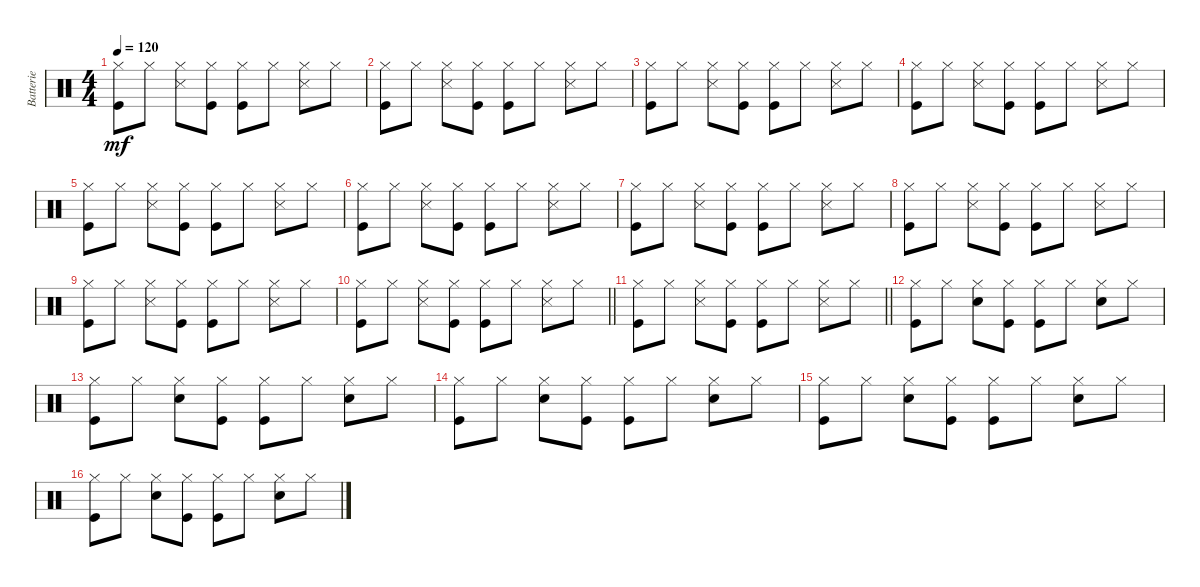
\track ("Batterie" "Batterie") {instrument percussion}
\staff {score}
\articulation defaults
\ts (4 4)
\tempo 120
\clef neutral
\ks c
("Hi-Hat (closed)" "Kick (hit)").8{dy mf} "Hi-Hat (closed)".8 ("Hi-Hat (closed)" "Snare (side stick) 3").8 ("Hi-Hat (closed)" "Kick (hit)").8 ("Hi-Hat (closed)" "Kick (hit)").8 "Hi-Hat (closed)".8 ("Hi-Hat (closed)" "Snare (side stick) 3").8 "Hi-Hat (closed)".8 |
("Hi-Hat (closed)" "Kick (hit)").8 "Hi-Hat (closed)".8 ("Hi-Hat (closed)" "Snare (side stick) 3").8 ("Hi-Hat (closed)" "Kick (hit)").8 ("Hi-Hat (closed)" "Kick (hit)").8 "Hi-Hat (closed)".8 ("Hi-Hat (closed)" "Snare (side stick) 3").8 "Hi-Hat (closed)".8 |
("Hi-Hat (closed)" "Kick (hit)").8 "Hi-Hat (closed)".8 ("Hi-Hat (closed)" "Snare (side stick) 3").8 ("Hi-Hat (closed)" "Kick (hit)").8 ("Hi-Hat (closed)" "Kick (hit)").8 "Hi-Hat (closed)".8 ("Hi-Hat (closed)" "Snare (side stick) 3").8 "Hi-Hat (closed)".8 |
("Hi-Hat (closed)" "Kick (hit)").8 "Hi-Hat (closed)".8 ("Hi-Hat (closed)" "Snare (side stick) 3").8 ("Hi-Hat (closed)" "Kick (hit)").8 ("Hi-Hat (closed)" "Kick (hit)").8 "Hi-Hat (closed)".8 ("Hi-Hat (closed)" "Snare (side stick) 3").8 "Hi-Hat (closed)".8 |
("Hi-Hat (closed)" "Kick (hit)").8 "Hi-Hat (closed)".8 ("Hi-Hat (closed)" "Snare (side stick) 3").8 ("Hi-Hat (closed)" "Kick (hit)").8 ("Hi-Hat (closed)" "Kick (hit)").8 "Hi-Hat (closed)".8 ("Hi-Hat (closed)" "Snare (side stick) 3").8 "Hi-Hat (closed)".8 |
("Hi-Hat (closed)" "Kick (hit)").8 "Hi-Hat (closed)".8 ("Hi-Hat (closed)" "Snare (side stick) 3").8 ("Hi-Hat (closed)" "Kick (hit)").8 ("Hi-Hat (closed)" "Kick (hit)").8 "Hi-Hat (closed)".8 ("Hi-Hat (closed)" "Snare (side stick) 3").8 "Hi-Hat (closed)".8 |
("Hi-Hat (closed)" "Kick (hit)").8 "Hi-Hat (closed)".8 ("Hi-Hat (closed)" "Snare (side stick) 3").8 ("Hi-Hat (closed)" "Kick (hit)").8 ("Hi-Hat (closed)" "Kick (hit)").8 "Hi-Hat (closed)".8 ("Hi-Hat (closed)" "Snare (side stick) 3").8 "Hi-Hat (closed)".8 |
("Hi-Hat (closed)" "Kick (hit)").8 "Hi-Hat (closed)".8 ("Hi-Hat (closed)" "Snare (side stick) 3").8 ("Hi-Hat (closed)" "Kick (hit)").8 ("Hi-Hat (closed)" "Kick (hit)").8 "Hi-Hat (closed)".8 ("Hi-Hat (closed)" "Snare (side stick) 3").8 "Hi-Hat (closed)".8 |
("Hi-Hat (closed)" "Kick (hit)").8 "Hi-Hat (closed)".8 ("Hi-Hat (closed)" "Snare (side stick) 3").8 ("Hi-Hat (closed)" "Kick (hit)").8 ("Hi-Hat (closed)" "Kick (hit)").8 "Hi-Hat (closed)".8 ("Hi-Hat (closed)" "Snare (side stick) 3").8 "Hi-Hat (closed)".8 |
\barLineRight lightlight
("Hi-Hat (closed)" "Kick (hit)").8 "Hi-Hat (closed)".8 ("Hi-Hat (closed)" "Snare (side stick) 3").8 ("Hi-Hat (closed)" "Kick (hit)").8 ("Hi-Hat (closed)" "Kick (hit)").8 "Hi-Hat (closed)".8 ("Hi-Hat (closed)" "Snare (side stick) 3").8 "Hi-Hat (closed)".8 |
\barLineRight lightlight
("Hi-Hat (closed)" "Kick (hit)").8 "Hi-Hat (closed)".8 ("Hi-Hat (closed)" "Snare (side stick) 3").8 ("Hi-Hat (closed)" "Kick (hit)").8 ("Hi-Hat (closed)" "Kick (hit)").8 "Hi-Hat (closed)".8 ("Hi-Hat (closed)" "Snare (side stick) 3").8 "Hi-Hat (closed)".8 |
("Hi-Hat (closed)" "Kick (hit)").8 "Hi-Hat (closed)".8 ("Hi-Hat (closed)" "Snare (hit) 2").8 ("Hi-Hat (closed)" "Kick (hit)").8 ("Hi-Hat (closed)" "Kick (hit)").8 "Hi-Hat (closed)".8 ("Hi-Hat (closed)" "Snare (hit) 2").8 "Hi-Hat (closed)".8 |
("Hi-Hat (closed)" "Kick (hit)").8 "Hi-Hat (closed)".8 ("Hi-Hat (closed)" "Snare (hit) 2").8 ("Hi-Hat (closed)" "Kick (hit)").8 ("Hi-Hat (closed)" "Kick (hit)").8 "Hi-Hat (closed)".8 ("Hi-Hat (closed)" "Snare (hit) 2").8 "Hi-Hat (closed)".8 |
("Hi-Hat (closed)" "Kick (hit)").8 "Hi-Hat (closed)".8 ("Hi-Hat (closed)" "Snare (hit) 2").8 ("Hi-Hat (closed)" "Kick (hit)").8 ("Hi-Hat (closed)" "Kick (hit)").8 "Hi-Hat (closed)".8 ("Hi-Hat (closed)" "Snare (hit) 2").8 "Hi-Hat (closed)".8 |
("Hi-Hat (closed)" "Kick (hit)").8 "Hi-Hat (closed)".8 ("Hi-Hat (closed)" "Snare (hit) 2").8 ("Hi-Hat (closed)" "Kick (hit)").8 ("Hi-Hat (closed)" "Kick (hit)").8 "Hi-Hat (closed)".8 ("Hi-Hat (closed)" "Snare (hit) 2").8 "Hi-Hat (closed)".8 |
("Hi-Hat (closed)" "Kick (hit)").8 "Hi-Hat (closed)".8 ("Hi-Hat (closed)" "Snare (hit) 2").8 ("Hi-Hat (closed)" "Kick (hit)").8 ("Hi-Hat (closed)" "Kick (hit)").8 "Hi-Hat (closed)".8 ("Hi-Hat (closed)" "Snare (hit) 2").8 "Hi-Hat (closed)".8
